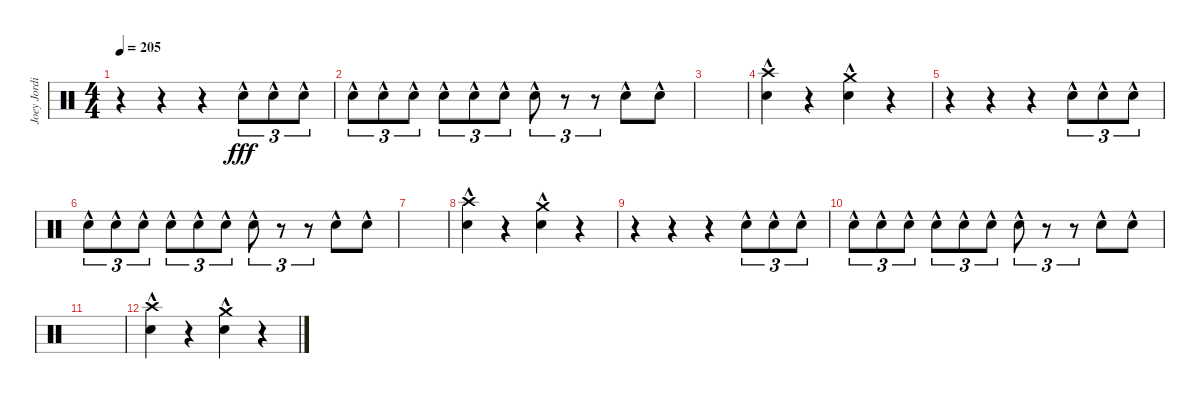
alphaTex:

\track ("Joey Jordison" "Joey Jordi") {instrument percussion}
\staff {score}
\articulation defaults
\ts (4 4)
\tempo 205
\clef neutral
\ks c
r.4{dy fff} r.4 r.4 "Electric Snare (hit)"{hac}.8{tu (3 2)} "Electric Snare (hit)"{hac}.8{tu (3 2)} "Electric Snare (hit)"{hac}.8{tu (3 2)} |
"Electric Snare (hit)"{hac}.8{tu (3 2)} "Electric Snare (hit)"{hac}.8{tu (3 2)} "Electric Snare (hit)"{hac}.8{tu (3 2)} "Electric Snare (hit)"{hac}.8{tu (3 2)} "Electric Snare (hit)"{hac}.8{tu (3 2)} "Electric Snare (hit)"{hac}.8{tu (3 2)} "Electric Snare (hit)"{hac}.8{tu (3 2)} r.8{tu (3 2)} r.8{tu (3 2)} "Electric Snare (hit)"{hac}.8 "Electric Snare (hit)"{hac}.8 |
|
("Crash high (hit)"{hac} "Electric Snare (hit)"{hac}).4 r.4 ("Crash medium (hit)"{hac} "Electric Snare (hit)"{hac}).4 r.4 |
r.4 r.4 r.4 "Electric Snare (hit)"{hac}.8{tu (3 2)} "Electric Snare (hit)"{hac}.8{tu (3 2)} "Electric Snare (hit)"{hac}.8{tu (3 2)} |
"Electric Snare (hit)"{hac}.8{tu (3 2)} "Electric Snare (hit)"{hac}.8{tu (3 2)} "Electric Snare (hit)"{hac}.8{tu (3 2)} "Electric Snare (hit)"{hac}.8{tu (3 2)} "Electric Snare (hit)"{hac}.8{tu (3 2)} "Electric Snare (hit)"{hac}.8{tu (3 2)} "Electric Snare (hit)"{hac}.8{tu (3 2)} r.8{tu (3 2)} r.8{tu (3 2)} "Electric Snare (hit)"{hac}.8 "Electric Snare (hit)"{hac}.8 |
|
("Crash high (hit)"{hac} "Electric Snare (hit)"{hac}).4 r.4 ("Crash medium (hit)"{hac} "Electric Snare (hit)"{hac}).4 r.4 |
r.4 r.4 r.4 "Electric Snare (hit)"{hac}.8{tu (3 2)} "Electric Snare (hit)"{hac}.8{tu (3 2)} "Electric Snare (hit)"{hac}.8{tu (3 2)} |
"Electric Snare (hit)"{hac}.8{tu (3 2)} "Electric Snare (hit)"{hac}.8{tu (3 2)} "Electric Snare (hit)"{hac}.8{tu (3 2)} "Electric Snare (hit)"{hac}.8{tu (3 2)} "Electric Snare (hit)"{hac}.8{tu (3 2)} "Electric Snare (hit)"{hac}.8{tu (3 2)} "Electric Snare (hit)"{hac}.8{tu (3 2)} r.8{tu (3 2)} r.8{tu (3 2)} "Electric Snare (hit)"{hac}.8 "Electric Snare (hit)"{hac}.8 |
|
("Crash high (hit)"{hac} "Electric Snare (hit)"{hac}).4 r.4 ("Crash medium (hit)"{hac} "Electric Snare (hit)"{hac}).4 r.4
